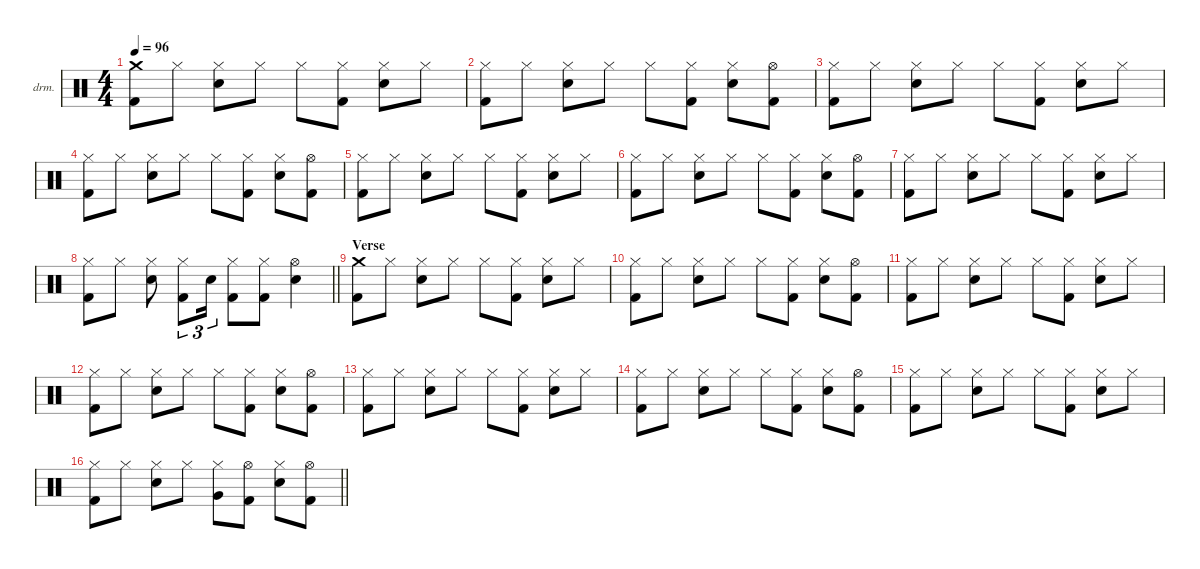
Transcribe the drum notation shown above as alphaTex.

\defaultSystemsLayout 4
\hideDynamics
\bracketExtendMode nobrackets
\firstSystemTrackNameOrientation horizontal
\otherSystemsTrackNameOrientation horizontal
\track ("Percussion" "drm.") {instrument percussion}
\staff {score}
\articulation defaults
\ts (4 4)
\tempo 96
\clef neutral
\ks c
("Crash medium (hit)" "Kick (hit) 2").8{dy f beam Down} "Hi-Hat (closed)".8{beam Down} ("Hi-Hat (closed)" "Snare (hit) 2").8{beam Down} "Hi-Hat (closed)".8{beam Down} "Hi-Hat (closed)".8{beam Down} ("Hi-Hat (closed)" "Kick (hit) 2").8{beam Down} ("Hi-Hat (closed)" "Snare (hit) 2").8{beam Down} "Hi-Hat (closed)".8{beam Down} |
("Hi-Hat (closed)" "Kick (hit) 2").8{beam Down} "Hi-Hat (closed)".8{beam Down} ("Hi-Hat (closed)" "Snare (hit) 2").8{beam Down} "Hi-Hat (closed)".8{beam Down} "Hi-Hat (closed)".8{beam Down} ("Hi-Hat (closed)" "Kick (hit) 2").8{beam Down} ("Hi-Hat (closed)" "Snare (hit) 2").8{beam Down} ("Hi-Hat (open)" "Kick (hit) 2").8{dy mf beam Down} |
("Hi-Hat (closed)" "Kick (hit) 2").8{dy f beam Down} "Hi-Hat (closed)".8{beam Down} ("Hi-Hat (closed)" "Snare (hit) 2").8{beam Down} "Hi-Hat (closed)".8{beam Down} "Hi-Hat (closed)".8{beam Down} ("Hi-Hat (closed)" "Kick (hit) 2").8{beam Down} ("Hi-Hat (closed)" "Snare (hit) 2").8{beam Down} "Hi-Hat (closed)".8{beam Down} |
("Hi-Hat (closed)" "Kick (hit) 2").8{beam Down} "Hi-Hat (closed)".8{beam Down} ("Hi-Hat (closed)" "Snare (hit) 2").8{beam Down} "Hi-Hat (closed)".8{beam Down} "Hi-Hat (closed)".8{beam Down} ("Hi-Hat (closed)" "Kick (hit) 2").8{beam Down} ("Hi-Hat (closed)" "Snare (hit) 2").8{beam Down} ("Hi-Hat (open)" "Kick (hit) 2").8{dy mf beam Down} |
("Hi-Hat (closed)" "Kick (hit) 2").8{dy f beam Down} "Hi-Hat (closed)".8{beam Down} ("Hi-Hat (closed)" "Snare (hit) 2").8{beam Down} "Hi-Hat (closed)".8{beam Down} "Hi-Hat (closed)".8{beam Down} ("Hi-Hat (closed)" "Kick (hit) 2").8{beam Down} ("Hi-Hat (closed)" "Snare (hit) 2").8{beam Down} "Hi-Hat (closed)".8{beam Down} |
("Hi-Hat (closed)" "Kick (hit) 2").8{beam Down} "Hi-Hat (closed)".8{beam Down} ("Hi-Hat (closed)" "Snare (hit) 2").8{beam Down} "Hi-Hat (closed)".8{beam Down} "Hi-Hat (closed)".8{beam Down} ("Hi-Hat (closed)" "Kick (hit) 2").8{beam Down} ("Hi-Hat (closed)" "Snare (hit) 2").8{beam Down} ("Hi-Hat (open)" "Kick (hit) 2").8{dy mf beam Down} |
("Hi-Hat (closed)" "Kick (hit) 2").8{dy f beam Down} "Hi-Hat (closed)".8{beam Down} ("Hi-Hat (closed)" "Snare (hit) 2").8{beam Down} "Hi-Hat (closed)".8{beam Down} "Hi-Hat (closed)".8{beam Down} ("Hi-Hat (closed)" "Kick (hit) 2").8{beam Down} ("Hi-Hat (closed)" "Snare (hit) 2").8{beam Down} "Hi-Hat (closed)".8{beam Down} |
\barLineRight lightlight
("Hi-Hat (closed)" "Kick (hit) 2").8{beam Down} "Hi-Hat (closed)".8{beam Down} ("Hi-Hat (closed)" "Snare (hit) 2").8{beam Down} ("Hi-Hat (closed)" "Kick (hit) 2").8{tu (3 2) beam Down} "Snare (hit) 2".16{tu (3 2) beam Down} ("Hi-Hat (closed)" "Kick (hit) 2").8{beam Down} ("Hi-Hat (closed)" "Kick (hit) 2").8{beam Down} ("Hi-Hat (open)" "Snare (hit) 2").4{beam Down} |
\section ("" "Verse")
("Crash medium (hit)" "Kick (hit) 2").8{beam Down} "Hi-Hat (closed)".8{beam Down} ("Hi-Hat (closed)" "Snare (hit) 2").8{beam Down} "Hi-Hat (closed)".8{beam Down} "Hi-Hat (closed)".8{beam Down} ("Hi-Hat (closed)" "Kick (hit) 2").8{beam Down} ("Hi-Hat (closed)" "Snare (hit) 2").8{beam Down} "Hi-Hat (closed)".8{beam Down} |
("Hi-Hat (closed)" "Kick (hit) 2").8{beam Down} "Hi-Hat (closed)".8{beam Down} ("Hi-Hat (closed)" "Snare (hit) 2").8{beam Down} "Hi-Hat (closed)".8{beam Down} "Hi-Hat (closed)".8{beam Down} ("Hi-Hat (closed)" "Kick (hit) 2").8{beam Down} ("Hi-Hat (closed)" "Snare (hit) 2").8{beam Down} ("Hi-Hat (open)" "Kick (hit) 2").8{dy mf beam Down} |
("Hi-Hat (closed)" "Kick (hit) 2").8{dy f beam Down} "Hi-Hat (closed)".8{beam Down} ("Hi-Hat (closed)" "Snare (hit) 2").8{beam Down} "Hi-Hat (closed)".8{beam Down} "Hi-Hat (closed)".8{beam Down} ("Hi-Hat (closed)" "Kick (hit) 2").8{beam Down} ("Hi-Hat (closed)" "Snare (hit) 2").8{beam Down} "Hi-Hat (closed)".8{beam Down} |
("Hi-Hat (closed)" "Kick (hit) 2").8{beam Down} "Hi-Hat (closed)".8{beam Down} ("Hi-Hat (closed)" "Snare (hit) 2").8{beam Down} "Hi-Hat (closed)".8{beam Down} "Hi-Hat (closed)".8{beam Down} ("Hi-Hat (closed)" "Kick (hit) 2").8{beam Down} ("Hi-Hat (closed)" "Snare (hit) 2").8{beam Down} ("Hi-Hat (open)" "Kick (hit) 2").8{dy mf beam Down} |
("Hi-Hat (closed)" "Kick (hit) 2").8{dy f beam Down} "Hi-Hat (closed)".8{beam Down} ("Hi-Hat (closed)" "Snare (hit) 2").8{beam Down} "Hi-Hat (closed)".8{beam Down} "Hi-Hat (closed)".8{beam Down} ("Hi-Hat (closed)" "Kick (hit) 2").8{beam Down} ("Hi-Hat (closed)" "Snare (hit) 2").8{beam Down} "Hi-Hat (closed)".8{beam Down} |
("Hi-Hat (closed)" "Kick (hit) 2").8{beam Down} "Hi-Hat (closed)".8{beam Down} ("Hi-Hat (closed)" "Snare (hit) 2").8{beam Down} "Hi-Hat (closed)".8{beam Down} "Hi-Hat (closed)".8{beam Down} ("Hi-Hat (closed)" "Kick (hit) 2").8{beam Down} ("Hi-Hat (closed)" "Snare (hit) 2").8{beam Down} ("Hi-Hat (open)" "Kick (hit) 2").8{dy mf beam Down} |
("Hi-Hat (closed)" "Kick (hit) 2").8{dy f beam Down} "Hi-Hat (closed)".8{beam Down} ("Hi-Hat (closed)" "Snare (hit) 2").8{beam Down} "Hi-Hat (closed)".8{beam Down} "Hi-Hat (closed)".8{beam Down} ("Hi-Hat (closed)" "Kick (hit) 2").8{beam Down} ("Hi-Hat (closed)" "Snare (hit) 2").8{beam Down} "Hi-Hat (closed)".8{beam Down} |
\barLineRight lightlight
("Hi-Hat (closed)" "Kick (hit) 2").8{beam Down} "Hi-Hat (closed)".8{beam Down} ("Hi-Hat (closed)" "Snare (hit) 2").8{beam Down} "Hi-Hat (closed)".8{beam Down} ("Hi-Hat (closed)" "Very Low Tom (hit)").8{beam Down} ("Hi-Hat (open)" "Kick (hit) 2").8{beam Down} ("Hi-Hat (closed)" "Snare (hit) 2").8{beam Down} ("Hi-Hat (open)" "Kick (hit) 2").8{beam Down}
